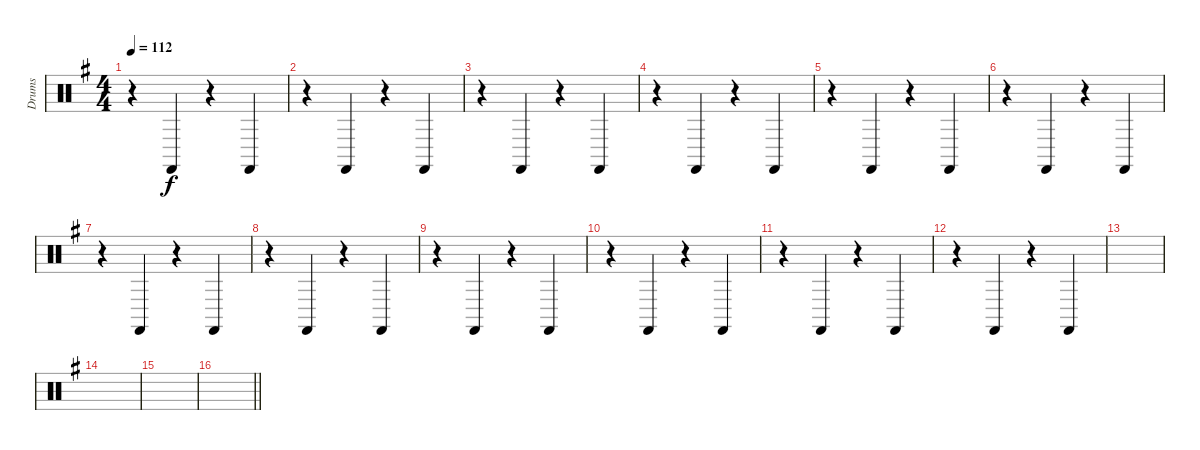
\track ("Drums" "Drums") {instrument percussion}
\staff {score}
\articulation defaults
\ts (4 4)
\tempo 112
\clef neutral
\ks g
r.4{dy f} "Castanets (hit)".4 r.4 "Castanets (hit)".4 |
r.4 "Castanets (hit)".4 r.4 "Castanets (hit)".4 |
r.4 "Castanets (hit)".4 r.4 "Castanets (hit)".4 |
r.4 "Castanets (hit)".4 r.4 "Castanets (hit)".4 |
r.4 "Castanets (hit)".4 r.4 "Castanets (hit)".4 |
r.4 "Castanets (hit)".4 r.4 "Castanets (hit)".4 |
r.4 "Castanets (hit)".4 r.4 "Castanets (hit)".4 |
r.4 "Castanets (hit)".4 r.4 "Castanets (hit)".4 |
r.4 "Castanets (hit)".4 r.4 "Castanets (hit)".4 |
r.4 "Castanets (hit)".4 r.4 "Castanets (hit)".4 |
r.4 "Castanets (hit)".4 r.4 "Castanets (hit)".4 |
r.4 "Castanets (hit)".4 r.4 "Castanets (hit)".4 |
|
|
|
\barLineRight lightlight
